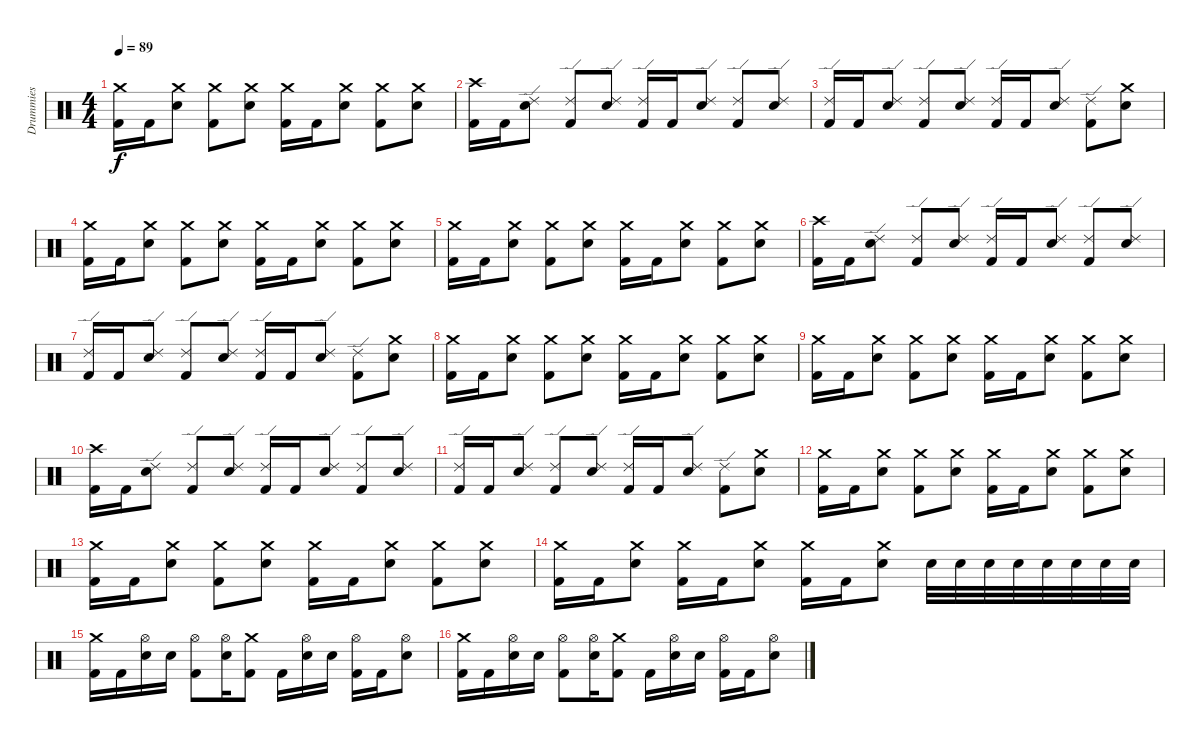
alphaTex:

\track ("Drummies" "Drummies") {instrument percussion}
\staff {score}
\articulation defaults
\ts (4 4)
\tempo 89
\clef neutral
\ks c
("Crash medium (hit)" "Kick (hit) 2").16{dy f} "Kick (hit) 2".16 ("Crash medium (hit)" "Electric Snare (hit)").8 ("Crash medium (hit)" "Kick (hit) 2").8 ("Crash medium (hit)" "Electric Snare (hit)").8 ("Crash medium (hit)" "Kick (hit) 2").16 "Kick (hit) 2".16 ("Crash medium (hit)" "Electric Snare (hit)").8 ("Crash medium (hit)" "Kick (hit) 2").8 ("Crash medium (hit)" "Electric Snare (hit)").8 |
("Crash high (hit)" "Kick (hit) 2").16 "Kick (hit) 2".16 ("Ride (edge) 2" "Electric Snare (hit)").8 ("Ride (edge) 2" "Kick (hit) 2").8 ("Ride (edge) 2" "Electric Snare (hit)").8 ("Ride (edge) 2" "Kick (hit) 2").16 "Kick (hit) 2".16 ("Ride (edge) 2" "Electric Snare (hit)").8 ("Ride (edge) 2" "Kick (hit) 2").8 ("Ride (edge) 2" "Electric Snare (hit)").8 |
("Ride (edge) 2" "Kick (hit) 2").16 "Kick (hit) 2".16 ("Ride (edge) 2" "Electric Snare (hit)").8 ("Ride (edge) 2" "Kick (hit) 2").8 ("Ride (edge) 2" "Electric Snare (hit)").8 ("Ride (edge) 2" "Kick (hit) 2").16 "Kick (hit) 2".16 ("Ride (edge) 2" "Electric Snare (hit)").8 ("Ride (edge) 2" "Kick (hit) 2").8 ("Crash medium (hit)" "Electric Snare (hit)").8 |
("Crash medium (hit)" "Kick (hit) 2").16 "Kick (hit) 2".16 ("Crash medium (hit)" "Electric Snare (hit)").8 ("Crash medium (hit)" "Kick (hit) 2").8 ("Crash medium (hit)" "Electric Snare (hit)").8 ("Crash medium (hit)" "Kick (hit) 2").16 "Kick (hit) 2".16 ("Crash medium (hit)" "Electric Snare (hit)").8 ("Crash medium (hit)" "Kick (hit) 2").8 ("Crash medium (hit)" "Electric Snare (hit)").8 |
("Crash medium (hit)" "Kick (hit) 2").16 "Kick (hit) 2".16 ("Crash medium (hit)" "Electric Snare (hit)").8 ("Crash medium (hit)" "Kick (hit) 2").8 ("Crash medium (hit)" "Electric Snare (hit)").8 ("Crash medium (hit)" "Kick (hit) 2").16 "Kick (hit) 2".16 ("Crash medium (hit)" "Electric Snare (hit)").8 ("Crash medium (hit)" "Kick (hit) 2").8 ("Crash medium (hit)" "Electric Snare (hit)").8 |
("Crash high (hit)" "Kick (hit) 2").16 "Kick (hit) 2".16 ("Ride (edge) 2" "Electric Snare (hit)").8 ("Ride (edge) 2" "Kick (hit) 2").8 ("Ride (edge) 2" "Electric Snare (hit)").8 ("Ride (edge) 2" "Kick (hit) 2").16 "Kick (hit) 2".16 ("Ride (edge) 2" "Electric Snare (hit)").8 ("Ride (edge) 2" "Kick (hit) 2").8 ("Ride (edge) 2" "Electric Snare (hit)").8 |
("Ride (edge) 2" "Kick (hit) 2").16 "Kick (hit) 2".16 ("Ride (edge) 2" "Electric Snare (hit)").8 ("Ride (edge) 2" "Kick (hit) 2").8 ("Ride (edge) 2" "Electric Snare (hit)").8 ("Ride (edge) 2" "Kick (hit) 2").16 "Kick (hit) 2".16 ("Ride (edge) 2" "Electric Snare (hit)").8 ("Ride (edge) 2" "Kick (hit) 2").8 ("Crash medium (hit)" "Electric Snare (hit)").8 |
("Crash medium (hit)" "Kick (hit) 2").16 "Kick (hit) 2".16 ("Crash medium (hit)" "Electric Snare (hit)").8 ("Crash medium (hit)" "Kick (hit) 2").8 ("Crash medium (hit)" "Electric Snare (hit)").8 ("Crash medium (hit)" "Kick (hit) 2").16 "Kick (hit) 2".16 ("Crash medium (hit)" "Electric Snare (hit)").8 ("Crash medium (hit)" "Kick (hit) 2").8 ("Crash medium (hit)" "Electric Snare (hit)").8 |
("Crash medium (hit)" "Kick (hit) 2").16 "Kick (hit) 2".16 ("Crash medium (hit)" "Electric Snare (hit)").8 ("Crash medium (hit)" "Kick (hit) 2").8 ("Crash medium (hit)" "Electric Snare (hit)").8 ("Crash medium (hit)" "Kick (hit) 2").16 "Kick (hit) 2".16 ("Crash medium (hit)" "Electric Snare (hit)").8 ("Crash medium (hit)" "Kick (hit) 2").8 ("Crash medium (hit)" "Electric Snare (hit)").8 |
("Crash high (hit)" "Kick (hit) 2").16 "Kick (hit) 2".16 ("Ride (edge) 2" "Electric Snare (hit)").8 ("Ride (edge) 2" "Kick (hit) 2").8 ("Ride (edge) 2" "Electric Snare (hit)").8 ("Ride (edge) 2" "Kick (hit) 2").16 "Kick (hit) 2".16 ("Ride (edge) 2" "Electric Snare (hit)").8 ("Ride (edge) 2" "Kick (hit) 2").8 ("Ride (edge) 2" "Electric Snare (hit)").8 |
("Ride (edge) 2" "Kick (hit) 2").16 "Kick (hit) 2".16 ("Ride (edge) 2" "Electric Snare (hit)").8 ("Ride (edge) 2" "Kick (hit) 2").8 ("Ride (edge) 2" "Electric Snare (hit)").8 ("Ride (edge) 2" "Kick (hit) 2").16 "Kick (hit) 2".16 ("Ride (edge) 2" "Electric Snare (hit)").8 ("Ride (edge) 2" "Kick (hit) 2").8 ("Crash medium (hit)" "Electric Snare (hit)").8 |
("Crash medium (hit)" "Kick (hit) 2").16 "Kick (hit) 2".16 ("Crash medium (hit)" "Electric Snare (hit)").8 ("Crash medium (hit)" "Kick (hit) 2").8 ("Crash medium (hit)" "Electric Snare (hit)").8 ("Crash medium (hit)" "Kick (hit) 2").16 "Kick (hit) 2".16 ("Crash medium (hit)" "Electric Snare (hit)").8 ("Crash medium (hit)" "Kick (hit) 2").8 ("Crash medium (hit)" "Electric Snare (hit)").8 |
("Crash medium (hit)" "Kick (hit) 2").16 "Kick (hit) 2".16 ("Crash medium (hit)" "Electric Snare (hit)").8 ("Crash medium (hit)" "Kick (hit) 2").8 ("Crash medium (hit)" "Electric Snare (hit)").8 ("Crash medium (hit)" "Kick (hit) 2").16 "Kick (hit) 2".16 ("Crash medium (hit)" "Electric Snare (hit)").8 ("Crash medium (hit)" "Kick (hit) 2").8 ("Crash medium (hit)" "Electric Snare (hit)").8 |
("Crash medium (hit)" "Kick (hit) 2").16 "Kick (hit) 2".16 ("Crash medium (hit)" "Electric Snare (hit)").8 ("Crash medium (hit)" "Kick (hit) 2").16 "Kick (hit) 2".16 ("Crash medium (hit)" "Electric Snare (hit)").8 ("Crash medium (hit)" "Kick (hit) 2").16 "Kick (hit) 2".16 ("Crash medium (hit)" "Electric Snare (hit)").8 "Electric Snare (hit)".32 "Electric Snare (hit)".32 "Electric Snare (hit)".32 "Electric Snare (hit)".32 "Electric Snare (hit)".32 "Electric Snare (hit)".32 "Electric Snare (hit)".32 "Electric Snare (hit)".32 |
("Crash medium (hit)" "Kick (hit) 2").16 "Kick (hit) 2".16 ("Hi-Hat (open)" "Electric Snare (hit)").16 "Electric Snare (hit)".16 ("Hi-Hat (open)" "Kick (hit) 2").8 ("Hi-Hat (open)" "Electric Snare (hit)").16 ("Crash medium (hit)" "Kick (hit) 2").8 "Kick (hit) 2".16 ("Hi-Hat (open)" "Electric Snare (hit)").16 "Electric Snare (hit)".16 ("Hi-Hat (open)" "Kick (hit) 2").16 "Kick (hit) 2".16 ("Hi-Hat (open)" "Electric Snare (hit)").8 |
("Crash medium (hit)" "Kick (hit) 2").16 "Kick (hit) 2".16 ("Hi-Hat (open)" "Electric Snare (hit)").16 "Electric Snare (hit)".16 ("Hi-Hat (open)" "Kick (hit) 2").8 ("Hi-Hat (open)" "Electric Snare (hit)").16 ("Crash medium (hit)" "Kick (hit) 2").8 "Kick (hit) 2".16 ("Hi-Hat (open)" "Electric Snare (hit)").16 "Electric Snare (hit)".16 ("Hi-Hat (open)" "Kick (hit) 2").16 "Kick (hit) 2".16 ("Hi-Hat (open)" "Electric Snare (hit)").8
